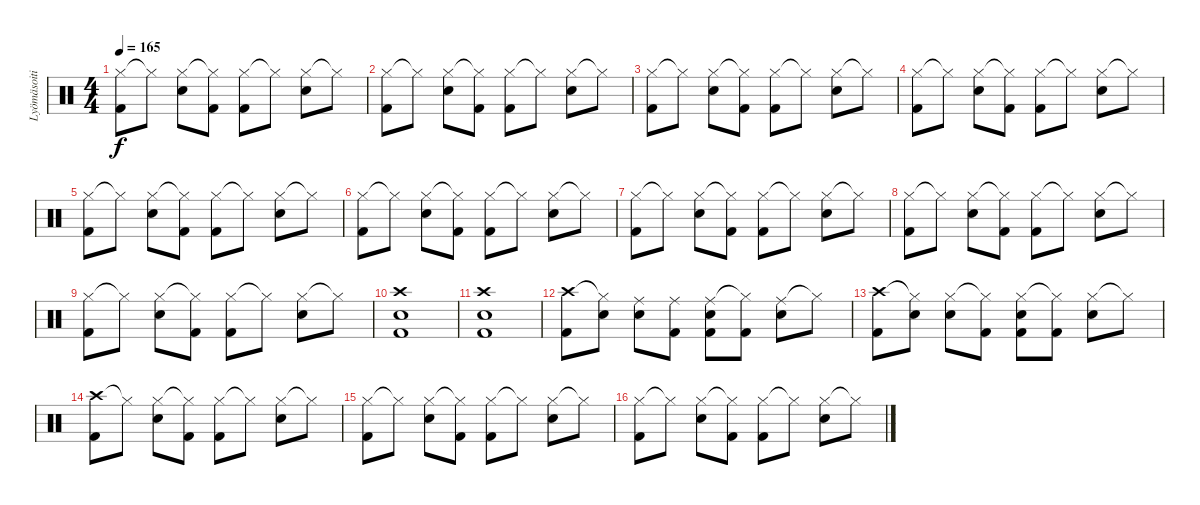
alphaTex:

\track ("Lyömäsoitin" "Lyömäsoiti") {instrument percussion}
\staff {score}
\articulation defaults
\ts (4 4)
\tempo 165
\clef neutral
\ks c
("Hi-Hat (closed)" "Kick (hit) 2").8{dy f} "Hi-Hat (closed)"{t}.8 ("Hi-Hat (closed)" "Snare (hit) 2").8 ("Hi-Hat (closed)"{t} "Kick (hit) 2").8 ("Hi-Hat (closed)" "Kick (hit) 2").8 "Hi-Hat (closed)"{t}.8 ("Hi-Hat (closed)" "Snare (hit) 2").8 "Hi-Hat (closed)"{t}.8 |
("Hi-Hat (closed)" "Kick (hit) 2").8 "Hi-Hat (closed)"{t}.8 ("Hi-Hat (closed)" "Snare (hit) 2").8 ("Hi-Hat (closed)"{t} "Kick (hit) 2").8 ("Hi-Hat (closed)" "Kick (hit) 2").8 "Hi-Hat (closed)"{t}.8 ("Hi-Hat (closed)" "Snare (hit) 2").8 "Hi-Hat (closed)"{t}.8 |
("Hi-Hat (closed)" "Kick (hit) 2").8 "Hi-Hat (closed)"{t}.8 ("Hi-Hat (closed)" "Snare (hit) 2").8 ("Hi-Hat (closed)"{t} "Kick (hit) 2").8 ("Hi-Hat (closed)" "Kick (hit) 2").8 "Hi-Hat (closed)"{t}.8 ("Hi-Hat (closed)" "Snare (hit) 2").8 "Hi-Hat (closed)"{t}.8 |
("Hi-Hat (closed)" "Kick (hit) 2").8 "Hi-Hat (closed)"{t}.8 ("Hi-Hat (closed)" "Snare (hit) 2").8 ("Hi-Hat (closed)"{t} "Kick (hit) 2").8 ("Hi-Hat (closed)" "Kick (hit) 2").8 "Hi-Hat (closed)"{t}.8 ("Hi-Hat (closed)" "Snare (hit) 2").8 "Hi-Hat (closed)"{t}.8 |
("Hi-Hat (closed)" "Kick (hit) 2").8 "Hi-Hat (closed)"{t}.8 ("Hi-Hat (closed)" "Snare (hit) 2").8 ("Hi-Hat (closed)"{t} "Kick (hit) 2").8 ("Hi-Hat (closed)" "Kick (hit) 2").8 "Hi-Hat (closed)"{t}.8 ("Hi-Hat (closed)" "Snare (hit) 2").8 "Hi-Hat (closed)"{t}.8 |
("Hi-Hat (closed)" "Kick (hit) 2").8 "Hi-Hat (closed)"{t}.8 ("Hi-Hat (closed)" "Snare (hit) 2").8 ("Hi-Hat (closed)"{t} "Kick (hit) 2").8 ("Hi-Hat (closed)" "Kick (hit) 2").8 "Hi-Hat (closed)"{t}.8 ("Hi-Hat (closed)" "Snare (hit) 2").8 "Hi-Hat (closed)"{t}.8 |
("Hi-Hat (closed)" "Kick (hit) 2").8 "Hi-Hat (closed)"{t}.8 ("Hi-Hat (closed)" "Snare (hit) 2").8 ("Hi-Hat (closed)"{t} "Kick (hit) 2").8 ("Hi-Hat (closed)" "Kick (hit) 2").8 "Hi-Hat (closed)"{t}.8 ("Hi-Hat (closed)" "Snare (hit) 2").8 "Hi-Hat (closed)"{t}.8 |
("Hi-Hat (closed)" "Kick (hit) 2").8 "Hi-Hat (closed)"{t}.8 ("Hi-Hat (closed)" "Snare (hit) 2").8 ("Hi-Hat (closed)"{t} "Kick (hit) 2").8 ("Hi-Hat (closed)" "Kick (hit) 2").8 "Hi-Hat (closed)"{t}.8 ("Hi-Hat (closed)" "Snare (hit) 2").8 "Hi-Hat (closed)"{t}.8 |
("Hi-Hat (closed)" "Kick (hit) 2").8 "Hi-Hat (closed)"{t}.8 ("Hi-Hat (closed)" "Snare (hit) 2").8 ("Hi-Hat (closed)"{t} "Kick (hit) 2").8 ("Hi-Hat (closed)" "Kick (hit) 2").8 "Hi-Hat (closed)"{t}.8 ("Hi-Hat (closed)" "Snare (hit) 2").8 "Hi-Hat (closed)"{t}.8 |
("Crash high (hit)" "Snare (hit) 2" "Kick (hit) 2").1 |
("Crash high (hit)" "Snare (hit) 2" "Kick (hit) 2").1 |
("Crash high (hit)" "Kick (hit) 2").8 ("Hi-Hat (closed)"{t} "Snare (hit) 2").8 ("Ride (middle)" "Snare (hit) 2").8 ("Ride (middle)" "Kick (hit) 2").8 ("Ride (middle)" "Snare (hit) 2" "Kick (hit) 2").8 ("Hi-Hat (closed)"{t} "Kick (hit) 2").8 ("Ride (middle)" "Snare (hit) 2").8 "Hi-Hat (closed)"{t}.8 |
("Crash high (hit)" "Kick (hit) 2").8 ("Hi-Hat (closed)"{t} "Snare (hit) 2").8 ("Hi-Hat (closed)" "Snare (hit) 2").8 ("Hi-Hat (closed)"{t} "Kick (hit) 2").8 ("Hi-Hat (closed)" "Snare (hit) 2" "Kick (hit) 2").8 ("Hi-Hat (closed)"{t} "Kick (hit) 2").8 ("Hi-Hat (closed)" "Snare (hit) 2").8 "Hi-Hat (closed)"{t}.8 |
("Crash high (hit)" "Kick (hit) 2").8 "Hi-Hat (closed)"{t}.8 ("Hi-Hat (closed)" "Snare (hit) 2").8 ("Hi-Hat (closed)"{t} "Kick (hit) 2").8 ("Hi-Hat (closed)" "Kick (hit) 2").8 "Hi-Hat (closed)"{t}.8 ("Hi-Hat (closed)" "Snare (hit) 2").8 "Hi-Hat (closed)"{t}.8 |
("Hi-Hat (closed)" "Kick (hit) 2").8 "Hi-Hat (closed)"{t}.8 ("Hi-Hat (closed)" "Snare (hit) 2").8 ("Hi-Hat (closed)"{t} "Kick (hit) 2").8 ("Hi-Hat (closed)" "Kick (hit) 2").8 "Hi-Hat (closed)"{t}.8 ("Hi-Hat (closed)" "Snare (hit) 2").8 "Hi-Hat (closed)"{t}.8 |
("Hi-Hat (closed)" "Kick (hit) 2").8 "Hi-Hat (closed)"{t}.8 ("Hi-Hat (closed)" "Snare (hit) 2").8 ("Hi-Hat (closed)"{t} "Kick (hit) 2").8 ("Hi-Hat (closed)" "Kick (hit) 2").8 "Hi-Hat (closed)"{t}.8 ("Hi-Hat (closed)" "Snare (hit) 2").8 "Hi-Hat (closed)"{t}.8
